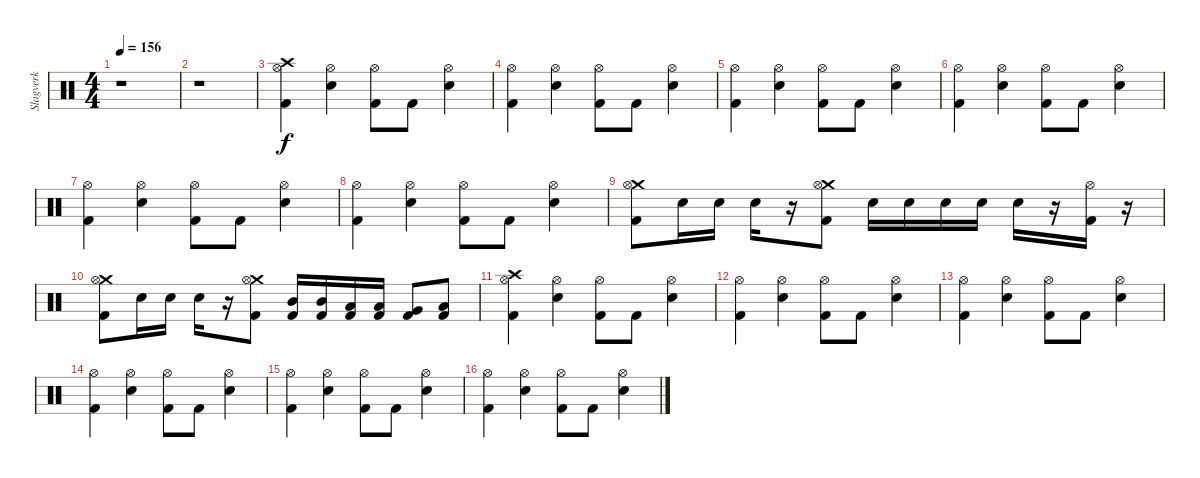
\track ("Slagverk" "Slagverk") {instrument percussion}
\staff {score}
\articulation defaults
\ts (4 4)
\tempo 156
\clef neutral
\ks c
r.1{dy f} |
r.1 |
("Crash high (hit)" "Hi-Hat (open)" "Kick (hit) 2").4 ("Hi-Hat (open)" "Snare (hit) 2").4 ("Hi-Hat (open)" "Kick (hit) 2").8 "Kick (hit) 2".8 ("Hi-Hat (open)" "Snare (hit) 2").4 |
("Hi-Hat (open)" "Kick (hit) 2").4 ("Hi-Hat (open)" "Snare (hit) 2").4 ("Hi-Hat (open)" "Kick (hit) 2").8 "Kick (hit) 2".8 ("Hi-Hat (open)" "Snare (hit) 2").4 |
("Hi-Hat (open)" "Kick (hit) 2").4 ("Hi-Hat (open)" "Snare (hit) 2").4 ("Hi-Hat (open)" "Kick (hit) 2").8 "Kick (hit) 2".8 ("Hi-Hat (open)" "Snare (hit) 2").4 |
("Hi-Hat (open)" "Kick (hit) 2").4 ("Hi-Hat (open)" "Snare (hit) 2").4 ("Hi-Hat (open)" "Kick (hit) 2").8 "Kick (hit) 2".8 ("Hi-Hat (open)" "Snare (hit) 2").4 |
("Hi-Hat (open)" "Kick (hit) 2").4 ("Hi-Hat (open)" "Snare (hit) 2").4 ("Hi-Hat (open)" "Kick (hit) 2").8 "Kick (hit) 2".8 ("Hi-Hat (open)" "Snare (hit) 2").4 |
("Hi-Hat (open)" "Kick (hit) 2").4 ("Hi-Hat (open)" "Snare (hit) 2").4 ("Hi-Hat (open)" "Kick (hit) 2").8 "Kick (hit) 2".8 ("Hi-Hat (open)" "Snare (hit) 2").4 |
("Crash medium (hit)" "Hi-Hat (open)" "Kick (hit) 2").8 "Snare (hit) 2".16 "Snare (hit) 2".16 "Snare (hit) 2".16 r.16 ("Crash medium (hit)" "Hi-Hat (open)" "Kick (hit) 2").8 "Snare (hit) 2".16 "Snare (hit) 2".16 "Snare (hit) 2".16 "Snare (hit) 2".16 "Snare (hit) 2".16 r.16 ("Hi-Hat (open)" "Kick (hit) 2").16 r.16 |
("Crash medium (hit)" "Hi-Hat (open)" "Kick (hit) 2").8 "Snare (hit) 2".16 "Snare (hit) 2".16 "Snare (hit) 2".16 r.16 ("Crash medium (hit)" "Hi-Hat (open)" "Kick (hit) 2").8 ("Mid Tom (hit)" "Kick (hit) 2").16 ("Mid Tom (hit)" "Kick (hit) 2").16 ("Low Tom (hit)" "Kick (hit) 2").16 ("Low Tom (hit)" "Kick (hit) 2").16 ("Very Low Tom (hit)" "Kick (hit) 2").8 ("Low Floor Tom (hit)" "Kick (hit) 2").8 |
("Crash high (hit)" "Hi-Hat (open)" "Kick (hit) 2").4 ("Hi-Hat (open)" "Snare (hit) 2").4 ("Hi-Hat (open)" "Kick (hit) 2").8 "Kick (hit) 2".8 ("Hi-Hat (open)" "Snare (hit) 2").4 |
("Hi-Hat (open)" "Kick (hit) 2").4 ("Hi-Hat (open)" "Snare (hit) 2").4 ("Hi-Hat (open)" "Kick (hit) 2").8 "Kick (hit) 2".8 ("Hi-Hat (open)" "Snare (hit) 2").4 |
("Hi-Hat (open)" "Kick (hit) 2").4 ("Hi-Hat (open)" "Snare (hit) 2").4 ("Hi-Hat (open)" "Kick (hit) 2").8 "Kick (hit) 2".8 ("Hi-Hat (open)" "Snare (hit) 2").4 |
("Hi-Hat (open)" "Kick (hit) 2").4 ("Hi-Hat (open)" "Snare (hit) 2").4 ("Hi-Hat (open)" "Kick (hit) 2").8 "Kick (hit) 2".8 ("Hi-Hat (open)" "Snare (hit) 2").4 |
("Hi-Hat (open)" "Kick (hit) 2").4 ("Hi-Hat (open)" "Snare (hit) 2").4 ("Hi-Hat (open)" "Kick (hit) 2").8 "Kick (hit) 2".8 ("Hi-Hat (open)" "Snare (hit) 2").4 |
("Hi-Hat (open)" "Kick (hit) 2").4 ("Hi-Hat (open)" "Snare (hit) 2").4 ("Hi-Hat (open)" "Kick (hit) 2").8 "Kick (hit) 2".8 ("Hi-Hat (open)" "Snare (hit) 2").4
